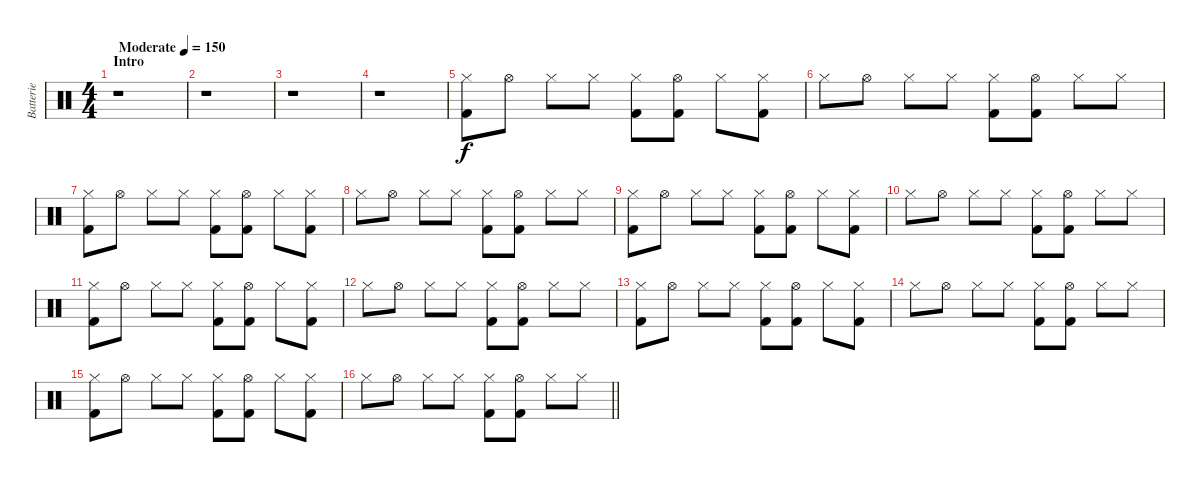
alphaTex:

\track ("Batterie" "Batterie") {instrument percussion}
\staff {score}
\articulation defaults
\ts (4 4)
\section ("" "Intro")
\tempo (150 "Moderate")
\clef neutral
\ks c
r.1{dy f} |
r.1 |
r.1 |
r.1 |
("Hi-Hat (closed)" "Kick (hit) 2").8 "Hi-Hat (open)".8 "Hi-Hat (closed)".8 "Hi-Hat (closed)".8 ("Hi-Hat (closed)" "Kick (hit) 2").8 ("Hi-Hat (open)" "Kick (hit) 2").8 "Hi-Hat (closed)".8 ("Hi-Hat (closed)" "Kick (hit) 2").8 |
"Hi-Hat (closed)".8 "Hi-Hat (open)".8 "Hi-Hat (closed)".8 "Hi-Hat (closed)".8 ("Hi-Hat (closed)" "Kick (hit) 2").8 ("Hi-Hat (open)" "Kick (hit) 2").8 "Hi-Hat (closed)".8 "Hi-Hat (closed)".8 |
("Hi-Hat (closed)" "Kick (hit) 2").8 "Hi-Hat (open)".8 "Hi-Hat (closed)".8 "Hi-Hat (closed)".8 ("Hi-Hat (closed)" "Kick (hit) 2").8 ("Hi-Hat (open)" "Kick (hit) 2").8 "Hi-Hat (closed)".8 ("Hi-Hat (closed)" "Kick (hit) 2").8 |
"Hi-Hat (closed)".8 "Hi-Hat (open)".8 "Hi-Hat (closed)".8 "Hi-Hat (closed)".8 ("Hi-Hat (closed)" "Kick (hit) 2").8 ("Hi-Hat (open)" "Kick (hit) 2").8 "Hi-Hat (closed)".8 "Hi-Hat (closed)".8 |
("Hi-Hat (closed)" "Kick (hit) 2").8 "Hi-Hat (open)".8 "Hi-Hat (closed)".8 "Hi-Hat (closed)".8 ("Hi-Hat (closed)" "Kick (hit) 2").8 ("Hi-Hat (open)" "Kick (hit) 2").8 "Hi-Hat (closed)".8 ("Hi-Hat (closed)" "Kick (hit) 2").8 |
"Hi-Hat (closed)".8 "Hi-Hat (open)".8 "Hi-Hat (closed)".8 "Hi-Hat (closed)".8 ("Hi-Hat (closed)" "Kick (hit) 2").8 ("Hi-Hat (open)" "Kick (hit) 2").8 "Hi-Hat (closed)".8 "Hi-Hat (closed)".8 |
("Hi-Hat (closed)" "Kick (hit) 2").8 "Hi-Hat (open)".8 "Hi-Hat (closed)".8 "Hi-Hat (closed)".8 ("Hi-Hat (closed)" "Kick (hit) 2").8 ("Hi-Hat (open)" "Kick (hit) 2").8 "Hi-Hat (closed)".8 ("Hi-Hat (closed)" "Kick (hit) 2").8 |
"Hi-Hat (closed)".8 "Hi-Hat (open)".8 "Hi-Hat (closed)".8 "Hi-Hat (closed)".8 ("Hi-Hat (closed)" "Kick (hit) 2").8 ("Hi-Hat (open)" "Kick (hit) 2").8 "Hi-Hat (closed)".8 "Hi-Hat (closed)".8 |
("Hi-Hat (closed)" "Kick (hit) 2").8 "Hi-Hat (open)".8 "Hi-Hat (closed)".8 "Hi-Hat (closed)".8 ("Hi-Hat (closed)" "Kick (hit) 2").8 ("Hi-Hat (open)" "Kick (hit) 2").8 "Hi-Hat (closed)".8 ("Hi-Hat (closed)" "Kick (hit) 2").8 |
"Hi-Hat (closed)".8 "Hi-Hat (open)".8 "Hi-Hat (closed)".8 "Hi-Hat (closed)".8 ("Hi-Hat (closed)" "Kick (hit) 2").8 ("Hi-Hat (open)" "Kick (hit) 2").8 "Hi-Hat (closed)".8 "Hi-Hat (closed)".8 |
("Hi-Hat (closed)" "Kick (hit) 2").8 "Hi-Hat (open)".8 "Hi-Hat (closed)".8 "Hi-Hat (closed)".8 ("Hi-Hat (closed)" "Kick (hit) 2").8 ("Hi-Hat (open)" "Kick (hit) 2").8 "Hi-Hat (closed)".8 ("Hi-Hat (closed)" "Kick (hit) 2").8 |
\barLineRight lightlight "Hi-Hat (closed)".8 "Hi-Hat (open)".8 "Hi-Hat (closed)".8 "Hi-Hat (closed)".8
("Hi-Hat (closed)" "Kick (hit) 2").8 ("Hi-Hat (open)" "Kick (hit) 2").8 "Hi-Hat (closed)".8 "Hi-Hat (closed)".8
